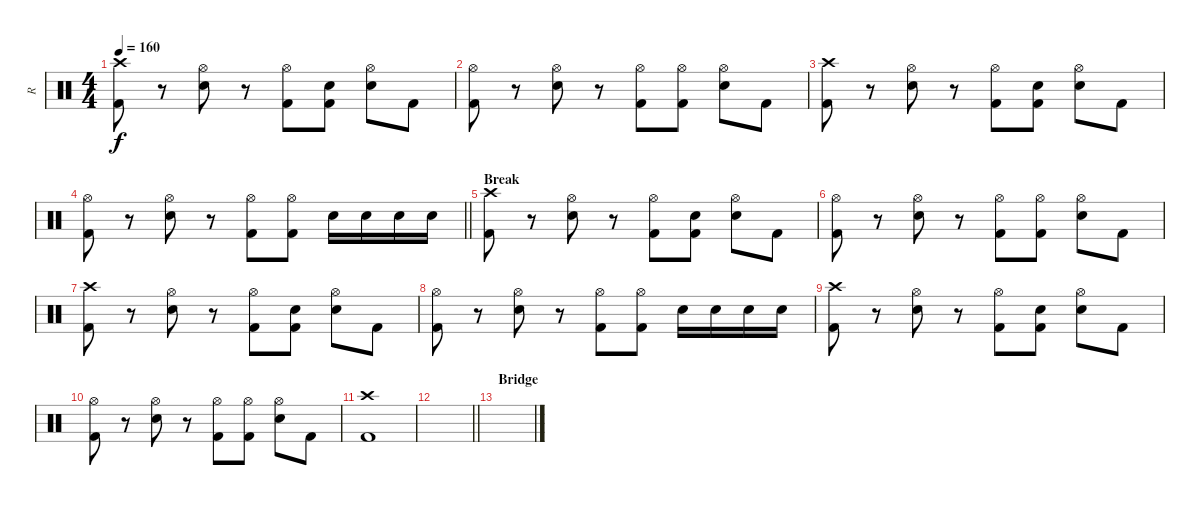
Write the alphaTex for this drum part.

\track ("R" "R") {instrument percussion}
\staff {score}
\articulation defaults
\ts (4 4)
\tempo 160
\clef neutral
\ks c
("Crash high (hit)" "Kick (hit) 2").8{dy f} r.8 ("Hi-Hat (open)" "Electric Snare (hit)").8 r.8 ("Hi-Hat (open)" "Kick (hit) 2").8 ("Electric Snare (hit)" "Kick (hit) 2").8 ("Hi-Hat (open)" "Electric Snare (hit)").8 "Kick (hit) 2".8 |
("Hi-Hat (open)" "Kick (hit) 2").8 r.8 ("Hi-Hat (open)" "Electric Snare (hit)").8 r.8 ("Hi-Hat (open)" "Kick (hit) 2").8 ("Hi-Hat (open)" "Kick (hit) 2").8 ("Hi-Hat (open)" "Electric Snare (hit)").8 "Kick (hit) 2".8 |
("Crash high (hit)" "Kick (hit) 2").8 r.8 ("Hi-Hat (open)" "Electric Snare (hit)").8 r.8 ("Hi-Hat (open)" "Kick (hit) 2").8 ("Electric Snare (hit)" "Kick (hit) 2").8 ("Hi-Hat (open)" "Electric Snare (hit)").8 "Kick (hit) 2".8 |
\barLineRight lightlight
("Hi-Hat (open)" "Kick (hit) 2").8 r.8 ("Hi-Hat (open)" "Electric Snare (hit)").8 r.8 ("Hi-Hat (open)" "Kick (hit) 2").8 ("Hi-Hat (open)" "Kick (hit) 2").8 "Electric Snare (hit)".16 "Electric Snare (hit)".16 "Electric Snare (hit)".16 "Electric Snare (hit)".16 |
\section ("" "Break")
("Crash high (hit)" "Kick (hit) 2").8 r.8 ("Hi-Hat (open)" "Electric Snare (hit)").8 r.8 ("Hi-Hat (open)" "Kick (hit) 2").8 ("Electric Snare (hit)" "Kick (hit) 2").8 ("Hi-Hat (open)" "Electric Snare (hit)").8 "Kick (hit) 2".8 |
("Hi-Hat (open)" "Kick (hit) 2").8 r.8 ("Hi-Hat (open)" "Electric Snare (hit)").8 r.8 ("Hi-Hat (open)" "Kick (hit) 2").8 ("Hi-Hat (open)" "Kick (hit) 2").8 ("Hi-Hat (open)" "Electric Snare (hit)").8 "Kick (hit) 2".8 |
("Crash high (hit)" "Kick (hit) 2").8 r.8 ("Hi-Hat (open)" "Electric Snare (hit)").8 r.8 ("Hi-Hat (open)" "Kick (hit) 2").8 ("Electric Snare (hit)" "Kick (hit) 2").8 ("Hi-Hat (open)" "Electric Snare (hit)").8 "Kick (hit) 2".8 |
("Hi-Hat (open)" "Kick (hit) 2").8 r.8 ("Hi-Hat (open)" "Electric Snare (hit)").8 r.8 ("Hi-Hat (open)" "Kick (hit) 2").8 ("Hi-Hat (open)" "Kick (hit) 2").8 "Electric Snare (hit)".16 "Electric Snare (hit)".16 "Electric Snare (hit)".16 "Electric Snare (hit)".16 |
("Crash high (hit)" "Kick (hit) 2").8 r.8 ("Hi-Hat (open)" "Electric Snare (hit)").8 r.8 ("Hi-Hat (open)" "Kick (hit) 2").8 ("Electric Snare (hit)" "Kick (hit) 2").8 ("Hi-Hat (open)" "Electric Snare (hit)").8 "Kick (hit) 2".8 |
("Hi-Hat (open)" "Kick (hit) 2").8 r.8 ("Hi-Hat (open)" "Electric Snare (hit)").8 r.8 ("Hi-Hat (open)" "Kick (hit) 2").8 ("Hi-Hat (open)" "Kick (hit) 2").8 ("Hi-Hat (open)" "Electric Snare (hit)").8 "Kick (hit) 2".8 |
("Crash high (hit)" "Kick (hit) 2").1 |
\barLineRight lightlight
|
\section ("" "Bridge")
